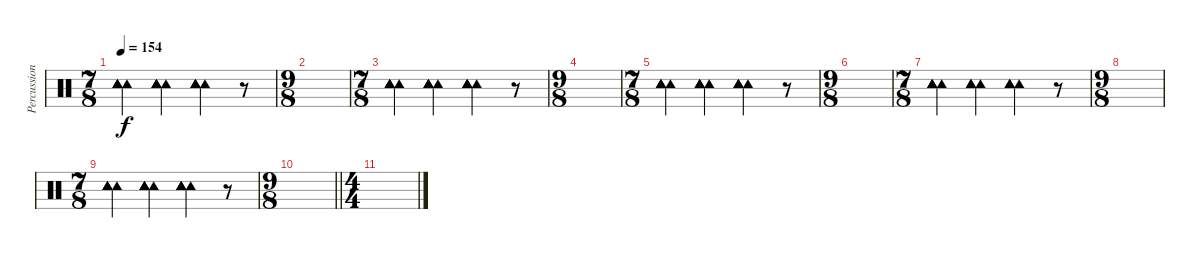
\track ("Percussions" "Percussion") {instrument percussion}
\staff {score}
\articulation defaults
\ts (7 8)
\tempo 154
\clef neutral
\ks c
("Tambourine (hit)" "Tambourine (hit)" "Tambourine (hit)" "Tambourine (hit)" "Tambourine (hit)").4{dy f} ("Tambourine (hit)" "Tambourine (hit)" "Tambourine (hit)" "Tambourine (hit)" "Tambourine (hit)").4 ("Tambourine (hit)" "Tambourine (hit)" "Tambourine (hit)" "Tambourine (hit)" "Tambourine (hit)").4 r.8 |
\ts (9 8)
|
\ts (7 8)
("Tambourine (hit)" "Tambourine (hit)" "Tambourine (hit)" "Tambourine (hit)" "Tambourine (hit)").4 ("Tambourine (hit)" "Tambourine (hit)" "Tambourine (hit)" "Tambourine (hit)" "Tambourine (hit)").4 ("Tambourine (hit)" "Tambourine (hit)" "Tambourine (hit)" "Tambourine (hit)" "Tambourine (hit)").4 r.8 |
\ts (9 8)
|
\ts (7 8)
("Tambourine (hit)" "Tambourine (hit)" "Tambourine (hit)" "Tambourine (hit)" "Tambourine (hit)").4 ("Tambourine (hit)" "Tambourine (hit)" "Tambourine (hit)" "Tambourine (hit)" "Tambourine (hit)").4 ("Tambourine (hit)" "Tambourine (hit)" "Tambourine (hit)" "Tambourine (hit)" "Tambourine (hit)").4 r.8 |
\ts (9 8)
|
\ts (7 8)
("Tambourine (hit)" "Tambourine (hit)" "Tambourine (hit)" "Tambourine (hit)" "Tambourine (hit)").4 ("Tambourine (hit)" "Tambourine (hit)" "Tambourine (hit)" "Tambourine (hit)" "Tambourine (hit)").4 ("Tambourine (hit)" "Tambourine (hit)" "Tambourine (hit)" "Tambourine (hit)" "Tambourine (hit)").4 r.8 |
\ts (9 8)
|
\ts (7 8)
("Tambourine (hit)" "Tambourine (hit)" "Tambourine (hit)" "Tambourine (hit)" "Tambourine (hit)").4 ("Tambourine (hit)" "Tambourine (hit)" "Tambourine (hit)" "Tambourine (hit)" "Tambourine (hit)").4 ("Tambourine (hit)" "Tambourine (hit)" "Tambourine (hit)" "Tambourine (hit)" "Tambourine (hit)").4 r.8 |
\ts (9 8)
\barLineRight lightlight
|
\ts (4 4)
